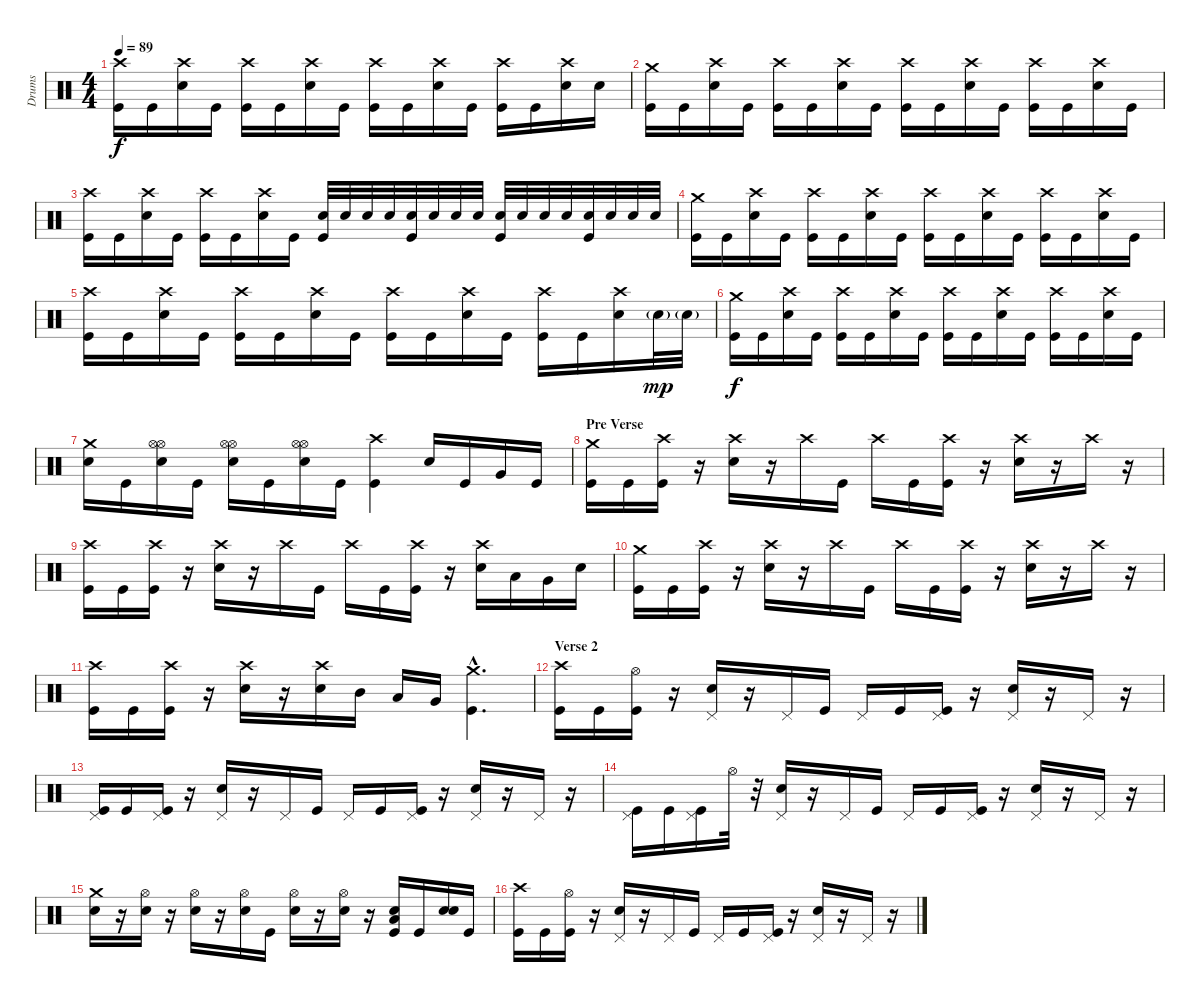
\track ("Drums" "Drums") {instrument percussion}
\staff {score}
\articulation defaults
\ts (4 4)
\tempo 89
\clef neutral
\ks c
("Crash high (hit)" "Kick (hit)").16{dy f} "Kick (hit)".16 ("Crash high (hit)" "Electric Snare (hit)").16 "Kick (hit)".16 ("Crash high (hit)" "Kick (hit)").16 "Kick (hit)".16 ("Crash high (hit)" "Electric Snare (hit)").16 "Kick (hit)".16 ("Crash high (hit)" "Kick (hit)").16 "Kick (hit)".16 ("Crash high (hit)" "Electric Snare (hit)").16 "Kick (hit)".16 ("Crash high (hit)" "Kick (hit)").16 "Kick (hit)".16 ("Crash high (hit)" "Electric Snare (hit)").16 "Electric Snare (hit)".16 |
("Crash medium (hit)" "Kick (hit)").16 "Kick (hit)".16 ("Crash high (hit)" "Electric Snare (hit)").16 "Kick (hit)".16 ("Crash high (hit)" "Kick (hit)").16 "Kick (hit)".16 ("Crash high (hit)" "Electric Snare (hit)").16 "Kick (hit)".16 ("Crash high (hit)" "Kick (hit)").16 "Kick (hit)".16 ("Crash high (hit)" "Electric Snare (hit)").16 "Kick (hit)".16 ("Crash high (hit)" "Kick (hit)").16 "Kick (hit)".16 ("Crash high (hit)" "Electric Snare (hit)").16 "Kick (hit)".16 |
("Crash high (hit)" "Kick (hit)").16 "Kick (hit)".16 ("Crash high (hit)" "Electric Snare (hit)").16 "Kick (hit)".16 ("Crash high (hit)" "Kick (hit)").16 "Kick (hit)".16 ("Crash high (hit)" "Electric Snare (hit)").16 "Kick (hit)".16 ("Electric Snare (hit)" "Kick (hit)").32 "Electric Snare (hit)".32 "Electric Snare (hit)".32 "Electric Snare (hit)".32 ("Electric Snare (hit)" "Kick (hit)").32 "Electric Snare (hit)".32 "Electric Snare (hit)".32 "Electric Snare (hit)".32 ("Electric Snare (hit)" "Kick (hit)").32 "Electric Snare (hit)".32 "Electric Snare (hit)".32 "Electric Snare (hit)".32 ("Electric Snare (hit)" "Kick (hit)").32 "Electric Snare (hit)".32 "Electric Snare (hit)".32 "Electric Snare (hit)".32 |
("Crash medium (hit)" "Kick (hit)").16 "Kick (hit)".16 ("Crash high (hit)" "Electric Snare (hit)").16 "Kick (hit)".16 ("Crash high (hit)" "Kick (hit)").16 "Kick (hit)".16 ("Crash high (hit)" "Electric Snare (hit)").16 "Kick (hit)".16 ("Crash high (hit)" "Kick (hit)").16 "Kick (hit)".16 ("Crash high (hit)" "Electric Snare (hit)").16 "Kick (hit)".16 ("Crash high (hit)" "Kick (hit)").16 "Kick (hit)".16 ("Crash high (hit)" "Electric Snare (hit)").16 "Kick (hit)".16 |
("Crash high (hit)" "Kick (hit)").16 "Kick (hit)".16 ("Crash high (hit)" "Electric Snare (hit)").16 "Kick (hit)".16 ("Crash high (hit)" "Kick (hit)").16 "Kick (hit)".16 ("Crash high (hit)" "Electric Snare (hit)").16 "Kick (hit)".16 ("Crash high (hit)" "Kick (hit)").16 "Kick (hit)".16 ("Crash high (hit)" "Electric Snare (hit)").16 "Kick (hit)".16 ("Crash high (hit)" "Kick (hit)").16 "Kick (hit)".16 ("Crash high (hit)" "Electric Snare (hit)").16 "Electric Snare (hit)"{g}.32{dy mp} "Electric Snare (hit)"{g}.32 |
("Crash medium (hit)" "Kick (hit)").16{dy f} "Kick (hit)".16 ("Crash high (hit)" "Electric Snare (hit)").16 "Kick (hit)".16 ("Crash high (hit)" "Kick (hit)").16 "Kick (hit)".16 ("Crash high (hit)" "Electric Snare (hit)").16 "Kick (hit)".16 ("Crash high (hit)" "Kick (hit)").16 "Kick (hit)".16 ("Crash high (hit)" "Electric Snare (hit)").16 "Kick (hit)".16 ("Crash high (hit)" "Kick (hit)").16 "Kick (hit)".16 ("Crash high (hit)" "Electric Snare (hit)").16 "Kick (hit)".16 |
("Crash medium (hit)" "Electric Snare (hit)").16 "Kick (hit)".16 ("Hi-Hat (open)" "Electric Snare (hit)" "Hi-Hat (open)").16 "Kick (hit)".16 ("Hi-Hat (open)" "Electric Snare (hit)" "Hi-Hat (open)").16 "Kick (hit)".16 ("Hi-Hat (open)" "Electric Snare (hit)" "Hi-Hat (open)").16 "Kick (hit)".16 ("Crash high (hit)" "Kick (hit)").4 "Electric Snare (hit)".16 "Kick (hit)".16 "Very Low Tom (hit)".16 "Kick (hit)".16 |
\section ("" "Pre Verse ")
("Crash medium (hit)" "Kick (hit)").16 "Kick (hit)".16 ("Crash high (hit)" "Kick (hit)").16 r.16 ("Crash high (hit)" "Electric Snare (hit)").16 r.16 "Crash high (hit)".16 "Kick (hit)".16 "Crash high (hit)".16 "Kick (hit)".16 ("Crash high (hit)" "Kick (hit)").16 r.16 ("Crash high (hit)" "Electric Snare (hit)").16 r.16 "Crash high (hit)".16 r.16 |
("Crash high (hit)" "Kick (hit)").16 "Kick (hit)".16 ("Crash high (hit)" "Kick (hit)").16 r.16 ("Crash high (hit)" "Electric Snare (hit)").16 r.16 "Crash high (hit)".16 "Kick (hit)".16 "Crash high (hit)".16 "Kick (hit)".16 ("Crash high (hit)" "Kick (hit)").16 r.16 ("Crash high (hit)" "Electric Snare (hit)").16 "Low Tom (hit)".16 "Very Low Tom (hit)".16 "Electric Snare (hit)".16 |
("Crash medium (hit)" "Kick (hit)").16 "Kick (hit)".16 ("Crash high (hit)" "Kick (hit)").16 r.16 ("Crash high (hit)" "Electric Snare (hit)").16 r.16 "Crash high (hit)".16 "Kick (hit)".16 "Crash high (hit)".16 "Kick (hit)".16 ("Crash high (hit)" "Kick (hit)").16 r.16 ("Crash high (hit)" "Electric Snare (hit)").16 r.16 "Crash high (hit)".16 r.16 |
("Crash high (hit)" "Kick (hit)").16 "Kick (hit)".16 ("Crash high (hit)" "Kick (hit)").16 r.16 ("Crash high (hit)" "Electric Snare (hit)").16 r.16 ("Crash high (hit)" "Electric Snare (hit)").16 "Mid Tom (hit)".16 "Low Tom (hit)".16 "Very Low Tom (hit)".16 ("Crash medium (hit)"{hac} "Kick (hit)"{hac}).4{d} |
\section ("" "Verse 2")
("Crash high (hit)" "Kick (hit)").16 "Kick (hit)".16 ("Hi-Hat (open)" "Kick (hit)").16 r.16 ("Pedal Hi-Hat (hit)" "Electric Snare (hit)").16 r.16 "Pedal Hi-Hat (hit)".16 "Kick (hit)".16 "Pedal Hi-Hat (hit)".16 "Kick (hit)".16 ("Pedal Hi-Hat (hit)" "Kick (hit)").16 r.16 ("Pedal Hi-Hat (hit)" "Electric Snare (hit)").16 r.16 "Pedal Hi-Hat (hit)".16 r.16 |
("Pedal Hi-Hat (hit)" "Kick (hit)").16 "Kick (hit)".16 ("Pedal Hi-Hat (hit)" "Kick (hit)").16 r.16 ("Pedal Hi-Hat (hit)" "Electric Snare (hit)").16 r.16 "Pedal Hi-Hat (hit)".16 "Kick (hit)".16 "Pedal Hi-Hat (hit)".16 "Kick (hit)".16 ("Pedal Hi-Hat (hit)" "Kick (hit)").16 r.16 ("Pedal Hi-Hat (hit)" "Electric Snare (hit)").16 r.16 "Pedal Hi-Hat (hit)".16 r.16 |
("Pedal Hi-Hat (hit)" "Kick (hit)").16 "Kick (hit)".16 ("Pedal Hi-Hat (hit)" "Kick (hit)").16 "Hi-Hat (open)".32 r.32 ("Pedal Hi-Hat (hit)" "Electric Snare (hit)").16 r.16 "Pedal Hi-Hat (hit)".16 "Kick (hit)".16 "Pedal Hi-Hat (hit)".16 "Kick (hit)".16 ("Pedal Hi-Hat (hit)" "Kick (hit)").16 r.16 ("Pedal Hi-Hat (hit)" "Electric Snare (hit)").16 r.16 "Pedal Hi-Hat (hit)".16 r.16 |
("Crash medium (hit)" "Electric Snare (hit)").16 r.16 ("Hi-Hat (open)" "Electric Snare (hit)").16 r.16 ("Hi-Hat (open)" "Electric Snare (hit)").16 r.16 ("Hi-Hat (open)" "Electric Snare (hit)").16 "Kick (hit)".16 ("Hi-Hat (open)" "Electric Snare (hit)").16 r.16 ("Hi-Hat (open)" "Electric Snare (hit)").16 r.16 ("Kick (hit)" "Electric Snare (hit)" "Low Floor Tom (hit)").16 "Kick (hit)".16 ("Electric Snare (hit)" "Electric Snare (hit)").16 "Kick (hit)".16 |
("Crash high (hit)" "Kick (hit)").16 "Kick (hit)".16 ("Hi-Hat (open)" "Kick (hit)").16 r.16 ("Pedal Hi-Hat (hit)" "Electric Snare (hit)").16 r.16 "Pedal Hi-Hat (hit)".16 "Kick (hit)".16 "Pedal Hi-Hat (hit)".16 "Kick (hit)".16 ("Pedal Hi-Hat (hit)" "Kick (hit)").16 r.16 ("Pedal Hi-Hat (hit)" "Electric Snare (hit)").16 r.16 "Pedal Hi-Hat (hit)".16 r.16
